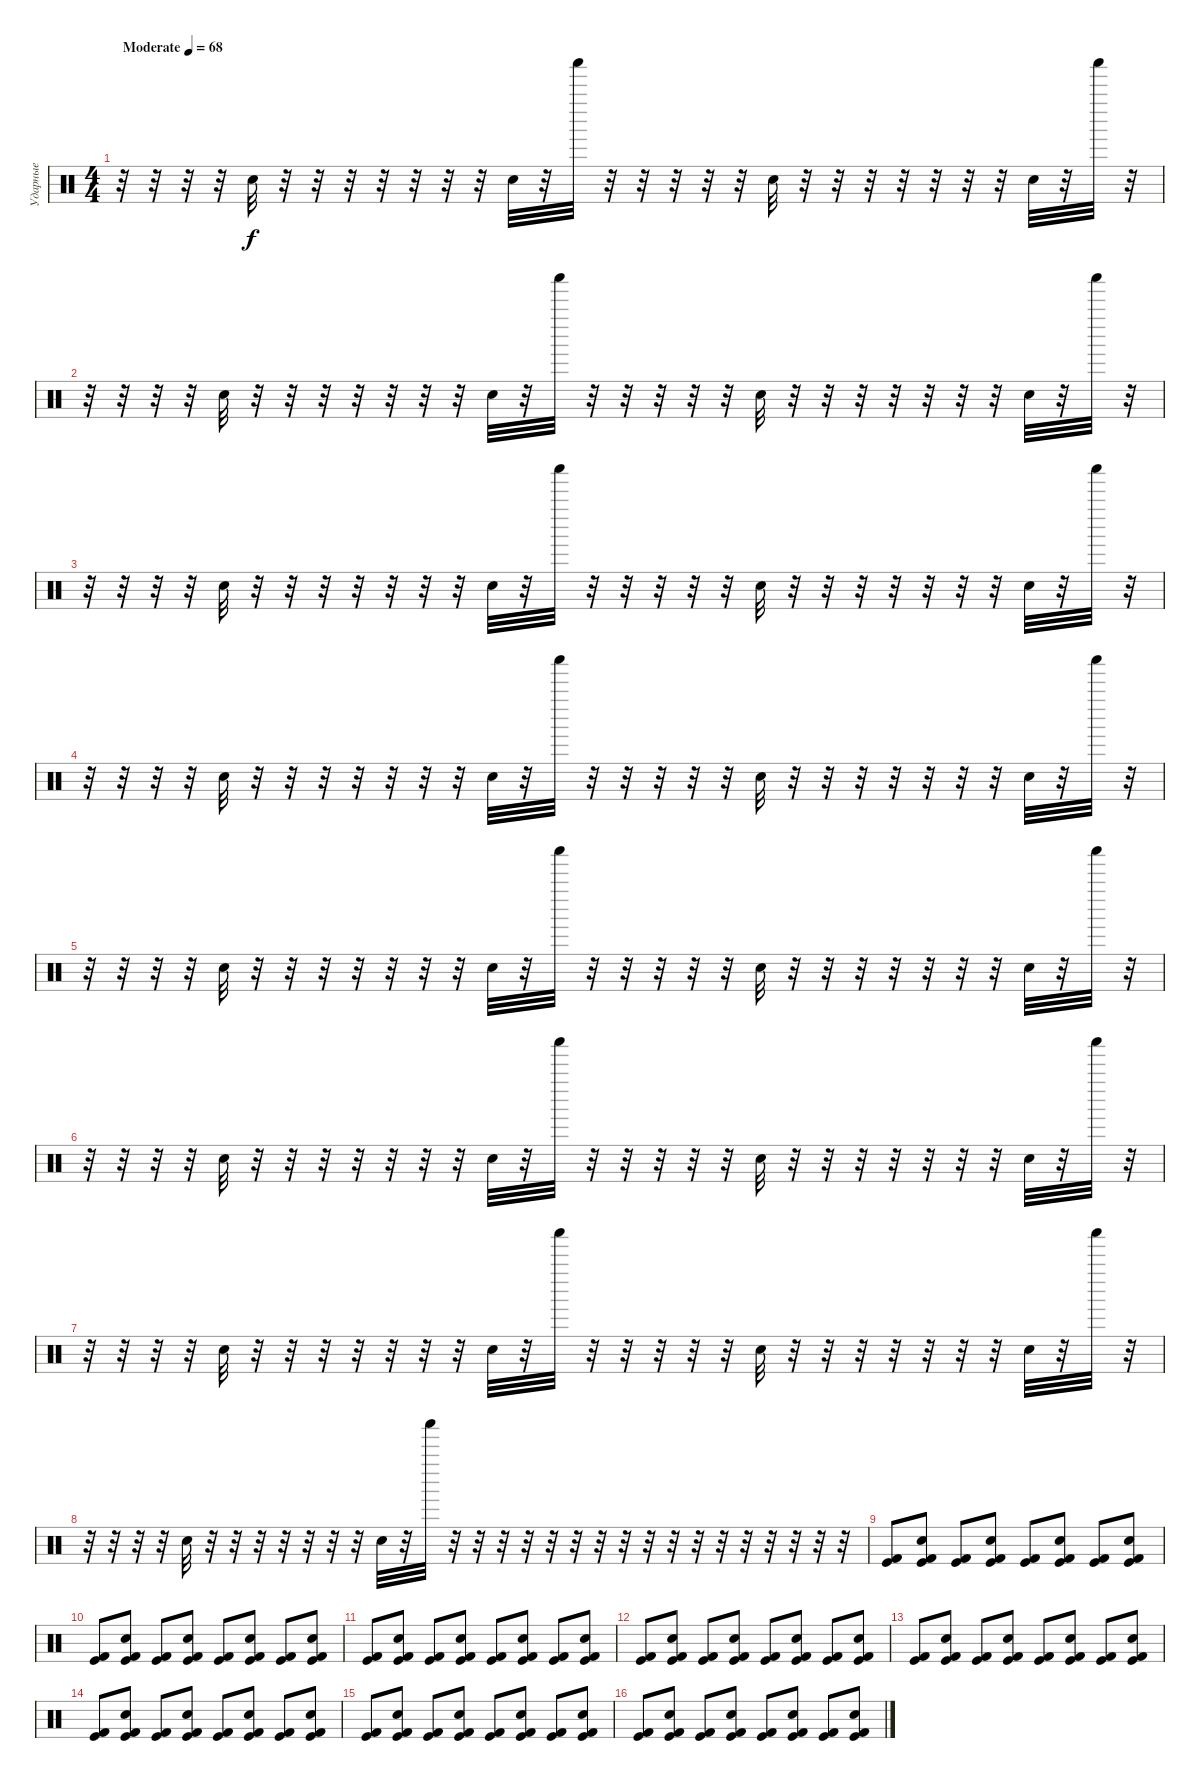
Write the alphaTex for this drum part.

\track ("Ударные" "Ударные") {instrument percussion}
\staff {score}
\articulation defaults
\ts (4 4)
\tempo (68 "Moderate")
\clef neutral
\ks c
r.32{dy f} r.32 r.32 r.32 "Hand Clap (hit)".32 r.32 r.32 r.32 r.32 r.32 r.32 r.32 "Hand Clap (hit)".32 r.32 "Shaker (hit)".32 r.32 r.32 r.32 r.32 r.32 "Hand Clap (hit)".32 r.32 r.32 r.32 r.32 r.32 r.32 r.32 "Hand Clap (hit)".32 r.32 "Shaker (hit)".32 r.32 |
r.32 r.32 r.32 r.32 "Hand Clap (hit)".32 r.32 r.32 r.32 r.32 r.32 r.32 r.32 "Hand Clap (hit)".32 r.32 "Shaker (hit)".32 r.32 r.32 r.32 r.32 r.32 "Hand Clap (hit)".32 r.32 r.32 r.32 r.32 r.32 r.32 r.32 "Hand Clap (hit)".32 r.32 "Shaker (hit)".32 r.32 |
r.32 r.32 r.32 r.32 "Hand Clap (hit)".32 r.32 r.32 r.32 r.32 r.32 r.32 r.32 "Hand Clap (hit)".32 r.32 "Shaker (hit)".32 r.32 r.32 r.32 r.32 r.32 "Hand Clap (hit)".32 r.32 r.32 r.32 r.32 r.32 r.32 r.32 "Hand Clap (hit)".32 r.32 "Shaker (hit)".32 r.32 |
r.32 r.32 r.32 r.32 "Hand Clap (hit)".32 r.32 r.32 r.32 r.32 r.32 r.32 r.32 "Hand Clap (hit)".32 r.32 "Shaker (hit)".32 r.32 r.32 r.32 r.32 r.32 "Hand Clap (hit)".32 r.32 r.32 r.32 r.32 r.32 r.32 r.32 "Hand Clap (hit)".32 r.32 "Shaker (hit)".32 r.32 |
r.32 r.32 r.32 r.32 "Hand Clap (hit)".32 r.32 r.32 r.32 r.32 r.32 r.32 r.32 "Hand Clap (hit)".32 r.32 "Shaker (hit)".32 r.32 r.32 r.32 r.32 r.32 "Hand Clap (hit)".32 r.32 r.32 r.32 r.32 r.32 r.32 r.32 "Hand Clap (hit)".32 r.32 "Shaker (hit)".32 r.32 |
r.32 r.32 r.32 r.32 "Hand Clap (hit)".32 r.32 r.32 r.32 r.32 r.32 r.32 r.32 "Hand Clap (hit)".32 r.32 "Shaker (hit)".32 r.32 r.32 r.32 r.32 r.32 "Hand Clap (hit)".32 r.32 r.32 r.32 r.32 r.32 r.32 r.32 "Hand Clap (hit)".32 r.32 "Shaker (hit)".32 r.32 |
r.32 r.32 r.32 r.32 "Hand Clap (hit)".32 r.32 r.32 r.32 r.32 r.32 r.32 r.32 "Hand Clap (hit)".32 r.32 "Shaker (hit)".32 r.32 r.32 r.32 r.32 r.32 "Hand Clap (hit)".32 r.32 r.32 r.32 r.32 r.32 r.32 r.32 "Hand Clap (hit)".32 r.32 "Shaker (hit)".32 r.32 |
r.32 r.32 r.32 r.32 "Hand Clap (hit)".32 r.32 r.32 r.32 r.32 r.32 r.32 r.32 "Hand Clap (hit)".32 r.32 "Shaker (hit)".32 r.32 r.32 r.32 r.32 r.32 r.32 r.32 r.32 r.32 r.32 r.32 r.32 r.32 r.32 r.32 r.32 r.32 |
("Kick (hit)" "Kick (hit) 2").8 ("Kick (hit)" "Kick (hit) 2" "Hand Clap (hit)").8 ("Kick (hit)" "Kick (hit) 2").8 ("Kick (hit)" "Kick (hit) 2" "Hand Clap (hit)").8 ("Kick (hit)" "Kick (hit) 2").8 ("Kick (hit)" "Kick (hit) 2" "Hand Clap (hit)").8 ("Kick (hit)" "Kick (hit) 2").8 ("Kick (hit)" "Kick (hit) 2" "Hand Clap (hit)").8 |
("Kick (hit)" "Kick (hit) 2").8 ("Kick (hit)" "Kick (hit) 2" "Hand Clap (hit)").8 ("Kick (hit)" "Kick (hit) 2").8 ("Kick (hit)" "Kick (hit) 2" "Hand Clap (hit)").8 ("Kick (hit)" "Kick (hit) 2").8 ("Kick (hit)" "Kick (hit) 2" "Hand Clap (hit)").8 ("Kick (hit)" "Kick (hit) 2").8 ("Kick (hit)" "Kick (hit) 2" "Hand Clap (hit)").8 |
("Kick (hit)" "Kick (hit) 2").8 ("Kick (hit)" "Kick (hit) 2" "Hand Clap (hit)").8 ("Kick (hit)" "Kick (hit) 2").8 ("Kick (hit)" "Kick (hit) 2" "Hand Clap (hit)").8 ("Kick (hit)" "Kick (hit) 2").8 ("Kick (hit)" "Kick (hit) 2" "Hand Clap (hit)").8 ("Kick (hit)" "Kick (hit) 2").8 ("Kick (hit)" "Kick (hit) 2" "Hand Clap (hit)").8 |
("Kick (hit)" "Kick (hit) 2").8 ("Kick (hit)" "Kick (hit) 2" "Hand Clap (hit)").8 ("Kick (hit)" "Kick (hit) 2").8 ("Kick (hit)" "Kick (hit) 2" "Hand Clap (hit)").8 ("Kick (hit)" "Kick (hit) 2").8 ("Kick (hit)" "Kick (hit) 2" "Hand Clap (hit)").8 ("Kick (hit)" "Kick (hit) 2").8 ("Kick (hit)" "Kick (hit) 2" "Hand Clap (hit)").8 |
("Kick (hit)" "Kick (hit) 2").8 ("Kick (hit)" "Kick (hit) 2" "Hand Clap (hit)").8 ("Kick (hit)" "Kick (hit) 2").8 ("Kick (hit)" "Kick (hit) 2" "Hand Clap (hit)").8 ("Kick (hit)" "Kick (hit) 2").8 ("Kick (hit)" "Kick (hit) 2" "Hand Clap (hit)").8 ("Kick (hit)" "Kick (hit) 2").8 ("Kick (hit)" "Kick (hit) 2" "Hand Clap (hit)").8 |
("Kick (hit)" "Kick (hit) 2").8 ("Kick (hit)" "Kick (hit) 2" "Hand Clap (hit)").8 ("Kick (hit)" "Kick (hit) 2").8 ("Kick (hit)" "Kick (hit) 2" "Hand Clap (hit)").8 ("Kick (hit)" "Kick (hit) 2").8 ("Kick (hit)" "Kick (hit) 2" "Hand Clap (hit)").8 ("Kick (hit)" "Kick (hit) 2").8 ("Kick (hit)" "Kick (hit) 2" "Hand Clap (hit)").8 |
("Kick (hit)" "Kick (hit) 2").8 ("Kick (hit)" "Kick (hit) 2" "Hand Clap (hit)").8 ("Kick (hit)" "Kick (hit) 2").8 ("Kick (hit)" "Kick (hit) 2" "Hand Clap (hit)").8 ("Kick (hit)" "Kick (hit) 2").8 ("Kick (hit)" "Kick (hit) 2" "Hand Clap (hit)").8 ("Kick (hit)" "Kick (hit) 2").8 ("Kick (hit)" "Kick (hit) 2" "Hand Clap (hit)").8 |
("Kick (hit)" "Kick (hit) 2").8 ("Kick (hit)" "Kick (hit) 2" "Hand Clap (hit)").8 ("Kick (hit)" "Kick (hit) 2").8 ("Kick (hit)" "Kick (hit) 2" "Hand Clap (hit)").8 ("Kick (hit)" "Kick (hit) 2").8 ("Kick (hit)" "Kick (hit) 2" "Hand Clap (hit)").8 ("Kick (hit)" "Kick (hit) 2").8 ("Kick (hit)" "Kick (hit) 2" "Hand Clap (hit)").8
